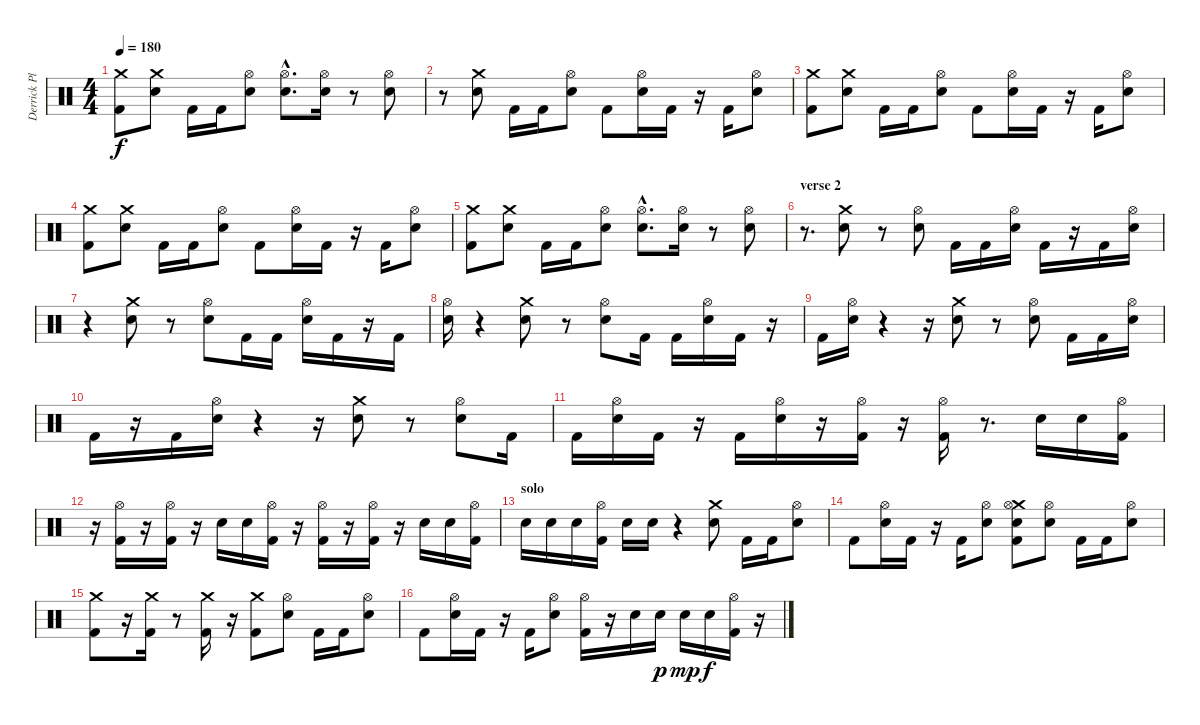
\track ("Derrick Plourde" "Derrick Pl") {instrument percussion}
\staff {score}
\articulation defaults
\ts (4 4)
\tempo 180
\clef neutral
\ks c
("Crash medium (hit)" "Kick (hit) 2").8{dy f} ("Crash medium (hit)" "Electric Snare (hit)").8 "Kick (hit) 2".16 "Kick (hit) 2".16 ("Hi-Hat (open)" "Electric Snare (hit)").8 ("Hi-Hat (open)" "Electric Snare (hit)"{hac}).8{d} ("Hi-Hat (open)" "Electric Snare (hit)").16 r.8 ("Hi-Hat (open)" "Electric Snare (hit)").8 |
r.8 ("Crash medium (hit)" "Electric Snare (hit)").8 "Kick (hit) 2".16 "Kick (hit) 2".16 ("Hi-Hat (open)" "Electric Snare (hit)").8 "Kick (hit) 2".8 ("Hi-Hat (open)" "Electric Snare (hit)").16 "Kick (hit) 2".16 r.16 "Kick (hit) 2".16 ("Hi-Hat (open)" "Electric Snare (hit)").8 |
("Crash medium (hit)" "Kick (hit) 2").8 ("Crash medium (hit)" "Electric Snare (hit)").8 "Kick (hit) 2".16 "Kick (hit) 2".16 ("Hi-Hat (open)" "Electric Snare (hit)").8 "Kick (hit) 2".8 ("Hi-Hat (open)" "Electric Snare (hit)").16 "Kick (hit) 2".16 r.16 "Kick (hit) 2".16 ("Hi-Hat (open)" "Electric Snare (hit)").8 |
("Crash medium (hit)" "Kick (hit) 2").8 ("Crash medium (hit)" "Electric Snare (hit)").8 "Kick (hit) 2".16 "Kick (hit) 2".16 ("Hi-Hat (open)" "Electric Snare (hit)").8 "Kick (hit) 2".8 ("Hi-Hat (open)" "Electric Snare (hit)").16 "Kick (hit) 2".16 r.16 "Kick (hit) 2".16 ("Hi-Hat (open)" "Electric Snare (hit)").8 |
("Crash medium (hit)" "Kick (hit) 2").8 ("Crash medium (hit)" "Electric Snare (hit)").8 "Kick (hit) 2".16 "Kick (hit) 2".16 ("Hi-Hat (open)" "Electric Snare (hit)").8 ("Hi-Hat (open)" "Electric Snare (hit)"{hac}).8{d} ("Hi-Hat (open)" "Electric Snare (hit)").16 r.8 ("Hi-Hat (open)" "Electric Snare (hit)").8 |
\section ("" "verse 2")
r.8{d} ("Crash medium (hit)" "Electric Snare (hit)").8 r.8 ("Hi-Hat (open)" "Electric Snare (hit)").8 "Kick (hit) 2".16 "Kick (hit) 2".16 ("Hi-Hat (open)" "Electric Snare (hit)").16 "Kick (hit) 2".16 r.16 "Kick (hit) 2".16 ("Hi-Hat (open)" "Electric Snare (hit)").16 |
r.4 ("Crash medium (hit)" "Electric Snare (hit)").8 r.8 ("Hi-Hat (open)" "Electric Snare (hit)").8 "Kick (hit) 2".16 "Kick (hit) 2".16 ("Hi-Hat (open)" "Electric Snare (hit)").16 "Kick (hit) 2".16 r.16 "Kick (hit) 2".16 |
("Hi-Hat (open)" "Electric Snare (hit)").16 r.4 ("Crash medium (hit)" "Electric Snare (hit)").8 r.8 ("Hi-Hat (open)" "Electric Snare (hit)").8 "Kick (hit) 2".16 "Kick (hit) 2".16 ("Hi-Hat (open)" "Electric Snare (hit)").16 "Kick (hit) 2".16 r.16 |
"Kick (hit) 2".16 ("Hi-Hat (open)" "Electric Snare (hit)").16 r.4 r.16 ("Crash medium (hit)" "Electric Snare (hit)").8 r.8 ("Hi-Hat (open)" "Electric Snare (hit)").8 "Kick (hit) 2".16 "Kick (hit) 2".16 ("Hi-Hat (open)" "Electric Snare (hit)").16 |
"Kick (hit) 2".16 r.16 "Kick (hit) 2".16 ("Hi-Hat (open)" "Electric Snare (hit)").16 r.4 r.16 ("Crash medium (hit)" "Electric Snare (hit)").8 r.8 ("Hi-Hat (open)" "Electric Snare (hit)").8 "Kick (hit) 2".16 |
"Kick (hit) 2".16 ("Hi-Hat (open)" "Electric Snare (hit)").16 "Kick (hit) 2".16 r.16 "Kick (hit) 2".16 ("Hi-Hat (open)" "Electric Snare (hit)").16 r.16 ("Hi-Hat (open)" "Kick (hit) 2").16 r.16 ("Hi-Hat (open)" "Kick (hit) 2").16 r.8{d} "Electric Snare (hit)".16 "Electric Snare (hit)".16 ("Hi-Hat (open)" "Kick (hit) 2").16 |
r.16 ("Hi-Hat (open)" "Kick (hit) 2").16 r.16 ("Hi-Hat (open)" "Kick (hit) 2").16 r.16 "Electric Snare (hit)".16 "Electric Snare (hit)".16 ("Hi-Hat (open)" "Kick (hit) 2").16 r.16 ("Hi-Hat (open)" "Kick (hit) 2").16 r.16 ("Hi-Hat (open)" "Kick (hit) 2").16 r.16 "Electric Snare (hit)".16 "Electric Snare (hit)".16 ("Hi-Hat (open)" "Kick (hit) 2").16 |
\section ("" "solo")
"Electric Snare (hit)".16 "Electric Snare (hit)".16 "Electric Snare (hit)".16 ("Hi-Hat (open)" "Kick (hit) 2").16 "Electric Snare (hit)".16 "Electric Snare (hit)".16 r.4 ("Crash medium (hit)" "Electric Snare (hit)").8 "Kick (hit) 2".16 "Kick (hit) 2".16 ("Hi-Hat (open)" "Electric Snare (hit)").8 |
"Kick (hit) 2".8 ("Hi-Hat (open)" "Electric Snare (hit)").16 "Kick (hit) 2".16 r.16 "Kick (hit) 2".16 ("Hi-Hat (open)" "Electric Snare (hit)").8 ("Crash medium (hit)" "Kick (hit) 2" "Hi-Hat (open)" "Electric Snare (hit)").8 ("Hi-Hat (open)" "Electric Snare (hit)").8 "Kick (hit) 2".16 "Kick (hit) 2".16 ("Hi-Hat (open)" "Electric Snare (hit)").8 |
("Crash medium (hit)" "Kick (hit) 2").8 r.16 ("Crash medium (hit)" "Kick (hit) 2").16 r.8 ("Crash medium (hit)" "Kick (hit) 2").16 r.16 ("Crash medium (hit)" "Kick (hit) 2").8 ("Hi-Hat (open)" "Electric Snare (hit)").8 "Kick (hit) 2".16 "Kick (hit) 2".16 ("Hi-Hat (open)" "Electric Snare (hit)").8 |
"Kick (hit) 2".8 ("Hi-Hat (open)" "Electric Snare (hit)").16 "Kick (hit) 2".16 r.16 "Kick (hit) 2".16 ("Hi-Hat (open)" "Electric Snare (hit)").8 ("Hi-Hat (open)" "Kick (hit) 2").16 r.16 "Electric Snare (hit)".16 "Electric Snare (hit)".16{dy p} "Electric Snare (hit)".16{dy mp} "Electric Snare (hit)".16{dy f} ("Hi-Hat (open)" "Kick (hit) 2").16 r.16
